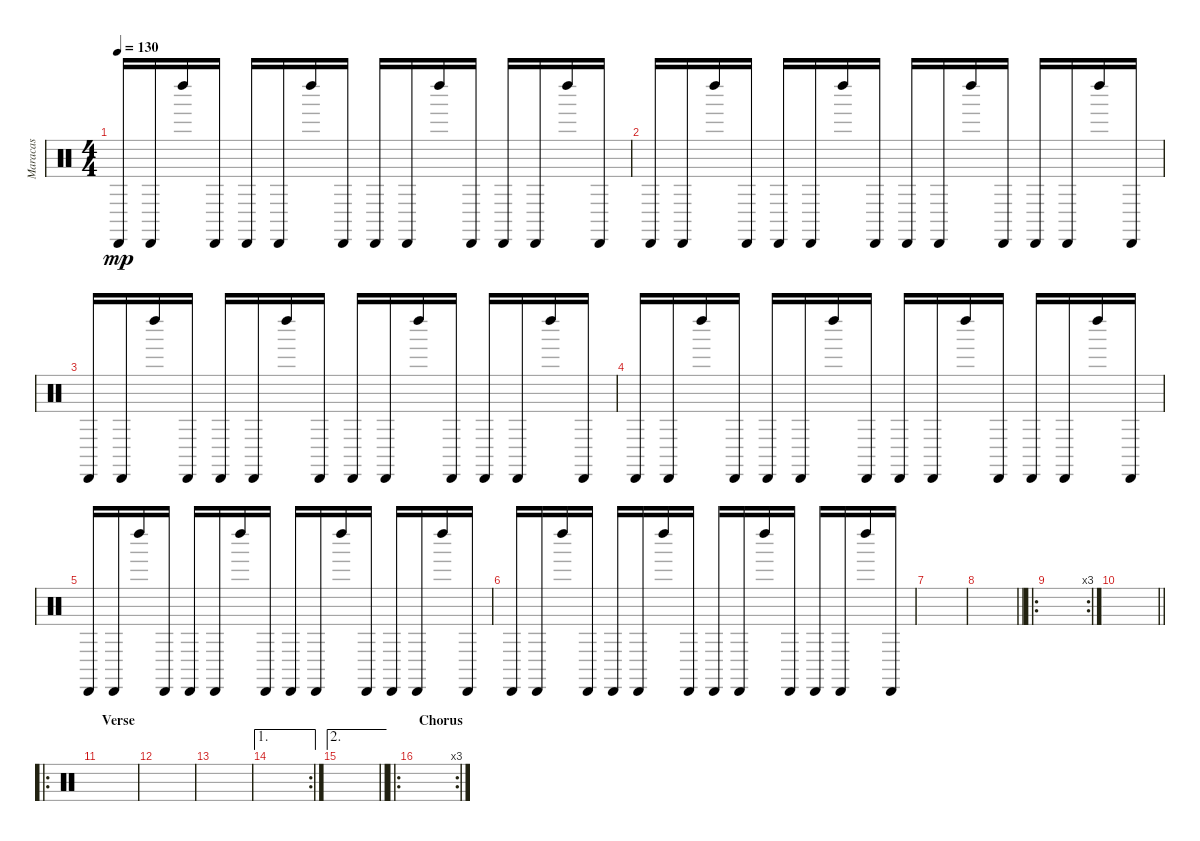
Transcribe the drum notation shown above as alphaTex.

\track ("Maracas" "Maracas") {instrument percussion}
\staff {score}
\articulation defaults
\ts (4 4)
\tempo 130
\clef neutral
\ks c "Cabasa (hit)".16{dy mp} "Cabasa (hit)".16 "Left Maraca (hit)".16 "Cabasa (hit)".16 "Cabasa (hit)".16 "Cabasa (hit)".16 "Left Maraca (hit)".16 "Cabasa (hit)".16 "Cabasa (hit)".16 "Cabasa (hit)".16 "Left Maraca (hit)".16 "Cabasa (hit)".16 "Cabasa (hit)".16 "Cabasa (hit)".16 "Left Maraca (hit)".16 "Cabasa (hit)".16
|
"Cabasa (hit)".16 "Cabasa (hit)".16 "Left Maraca (hit)".16 "Cabasa (hit)".16 "Cabasa (hit)".16 "Cabasa (hit)".16 "Left Maraca (hit)".16 "Cabasa (hit)".16 "Cabasa (hit)".16 "Cabasa (hit)".16 "Left Maraca (hit)".16 "Cabasa (hit)".16 "Cabasa (hit)".16 "Cabasa (hit)".16 "Left Maraca (hit)".16 "Cabasa (hit)".16 |
"Cabasa (hit)".16 "Cabasa (hit)".16 "Left Maraca (hit)".16 "Cabasa (hit)".16 "Cabasa (hit)".16 "Cabasa (hit)".16 "Left Maraca (hit)".16 "Cabasa (hit)".16 "Cabasa (hit)".16 "Cabasa (hit)".16 "Left Maraca (hit)".16 "Cabasa (hit)".16 "Cabasa (hit)".16 "Cabasa (hit)".16 "Left Maraca (hit)".16 "Cabasa (hit)".16 |
"Cabasa (hit)".16 "Cabasa (hit)".16 "Left Maraca (hit)".16 "Cabasa (hit)".16 "Cabasa (hit)".16 "Cabasa (hit)".16 "Left Maraca (hit)".16 "Cabasa (hit)".16 "Cabasa (hit)".16 "Cabasa (hit)".16 "Left Maraca (hit)".16 "Cabasa (hit)".16 "Cabasa (hit)".16 "Cabasa (hit)".16 "Left Maraca (hit)".16 "Cabasa (hit)".16 |
"Cabasa (hit)".16 "Cabasa (hit)".16 "Left Maraca (hit)".16 "Cabasa (hit)".16 "Cabasa (hit)".16 "Cabasa (hit)".16 "Left Maraca (hit)".16 "Cabasa (hit)".16 "Cabasa (hit)".16 "Cabasa (hit)".16 "Left Maraca (hit)".16 "Cabasa (hit)".16 "Cabasa (hit)".16 "Cabasa (hit)".16 "Left Maraca (hit)".16 "Cabasa (hit)".16 |
"Cabasa (hit)".16 "Cabasa (hit)".16 "Left Maraca (hit)".16 "Cabasa (hit)".16 "Cabasa (hit)".16 "Cabasa (hit)".16 "Left Maraca (hit)".16 "Cabasa (hit)".16 "Cabasa (hit)".16 "Cabasa (hit)".16 "Left Maraca (hit)".16 "Cabasa (hit)".16 "Cabasa (hit)".16 "Cabasa (hit)".16 "Left Maraca (hit)".16 "Cabasa (hit)".16 |
|
\barLineRight lightlight
|
\ro
\rc 3
\section ("" "")
|
\barLineRight lightlight
|
\ro
\section ("" "Verse")
|
|
|
\ae 1
\rc 2
|
\ae 2
\barLineRight lightlight
|
\ro
\rc 3
\section ("" "Chorus")
